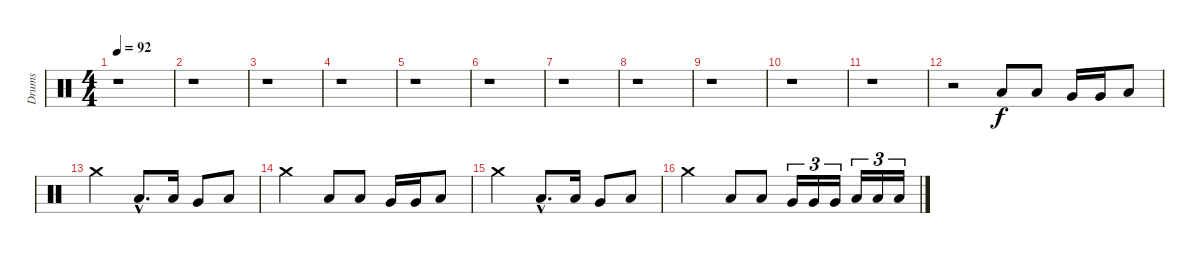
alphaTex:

\track ("Drums" "Drums") {instrument percussion}
\staff {score}
\articulation defaults
\ts (4 4)
\tempo 92
\clef neutral
\ks c
r.1{dy f} |
r.1 |
r.1 |
r.1 |
r.1 |
r.1 |
r.1 |
r.1 |
r.1 |
r.1 |
r.1 |
r.2 "Low Tom (hit)".8 "Low Tom (hit)".8 "Very Low Tom (hit)".16 "Very Low Tom (hit)".16 "Low Floor Tom (hit)".8 |
"Crash medium (hit)".2 "Low Tom (hit)"{hac}.8{d} "Low Tom (hit)".16 "Very Low Tom (hit)".8 "Low Floor Tom (hit)".8 |
"Crash medium (hit)".2 "Low Tom (hit)".8 "Low Tom (hit)".8 "Very Low Tom (hit)".16 "Very Low Tom (hit)".16 "Low Floor Tom (hit)".8 |
"Crash medium (hit)".2 "Low Tom (hit)"{hac}.8{d} "Low Tom (hit)".16 "Very Low Tom (hit)".8 "Low Floor Tom (hit)".8 |
"Crash medium (hit)".2 "Low Tom (hit)".8 "Low Tom (hit)".8 "Very Low Tom (hit)".16{tu (3 2)} "Very Low Tom (hit)".16{tu (3 2)} "Very Low Tom (hit)".16{tu (3 2)} "Low Floor Tom (hit)".16{tu (3 2)} "Low Floor Tom (hit)".16{tu (3 2)} "Low Floor Tom (hit)".16{tu (3 2)}
